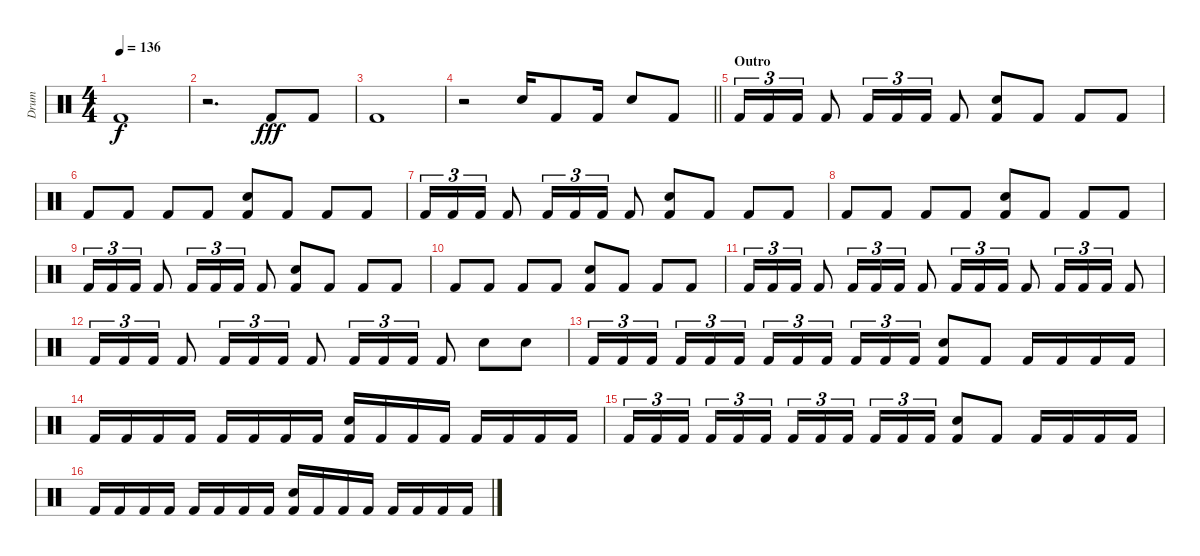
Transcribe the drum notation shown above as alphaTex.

\track ("Drum" "Drum") {instrument percussion}
\staff {score}
\articulation defaults
\ts (4 4)
\tempo 136
\clef neutral
\ks c "Kick (hit) 2".1{dy f}
|
r.2{d} "Kick (hit) 2".8{dy fff} "Kick (hit) 2".8 |
"Kick (hit) 2".1 |
\barLineRight lightlight
r.2 "Electric Snare (hit)".16 "Kick (hit) 2".8 "Kick (hit) 2".16 "Electric Snare (hit)".8 "Kick (hit) 2".8 |
\section ("" "Outro")
"Kick (hit) 2".16{tu (3 2)} "Kick (hit) 2".16{tu (3 2)} "Kick (hit) 2".16{tu (3 2)} "Kick (hit) 2".8 "Kick (hit) 2".16{tu (3 2)} "Kick (hit) 2".16{tu (3 2)} "Kick (hit) 2".16{tu (3 2)} "Kick (hit) 2".8 ("Electric Snare (hit)" "Kick (hit) 2").8 "Kick (hit) 2".8 "Kick (hit) 2".8 "Kick (hit) 2".8 |
"Kick (hit) 2".8 "Kick (hit) 2".8 "Kick (hit) 2".8 "Kick (hit) 2".8 ("Electric Snare (hit)" "Kick (hit) 2").8 "Kick (hit) 2".8 "Kick (hit) 2".8 "Kick (hit) 2".8 |
"Kick (hit) 2".16{tu (3 2)} "Kick (hit) 2".16{tu (3 2)} "Kick (hit) 2".16{tu (3 2)} "Kick (hit) 2".8 "Kick (hit) 2".16{tu (3 2)} "Kick (hit) 2".16{tu (3 2)} "Kick (hit) 2".16{tu (3 2)} "Kick (hit) 2".8 ("Electric Snare (hit)" "Kick (hit) 2").8 "Kick (hit) 2".8 "Kick (hit) 2".8 "Kick (hit) 2".8 |
"Kick (hit) 2".8 "Kick (hit) 2".8 "Kick (hit) 2".8 "Kick (hit) 2".8 ("Electric Snare (hit)" "Kick (hit) 2").8 "Kick (hit) 2".8 "Kick (hit) 2".8 "Kick (hit) 2".8 |
"Kick (hit) 2".16{tu (3 2)} "Kick (hit) 2".16{tu (3 2)} "Kick (hit) 2".16{tu (3 2)} "Kick (hit) 2".8 "Kick (hit) 2".16{tu (3 2)} "Kick (hit) 2".16{tu (3 2)} "Kick (hit) 2".16{tu (3 2)} "Kick (hit) 2".8 ("Electric Snare (hit)" "Kick (hit) 2").8 "Kick (hit) 2".8 "Kick (hit) 2".8 "Kick (hit) 2".8 |
"Kick (hit) 2".8 "Kick (hit) 2".8 "Kick (hit) 2".8 "Kick (hit) 2".8 ("Electric Snare (hit)" "Kick (hit) 2").8 "Kick (hit) 2".8 "Kick (hit) 2".8 "Kick (hit) 2".8 |
"Kick (hit) 2".16{tu (3 2) volume 10} "Kick (hit) 2".16{tu (3 2)} "Kick (hit) 2".16{tu (3 2)} "Kick (hit) 2".8 "Kick (hit) 2".16{tu (3 2)} "Kick (hit) 2".16{tu (3 2)} "Kick (hit) 2".16{tu (3 2)} "Kick (hit) 2".8 "Kick (hit) 2".16{tu (3 2)} "Kick (hit) 2".16{tu (3 2)} "Kick (hit) 2".16{tu (3 2)} "Kick (hit) 2".8 "Kick (hit) 2".16{tu (3 2)} "Kick (hit) 2".16{tu (3 2)} "Kick (hit) 2".16{tu (3 2)} "Kick (hit) 2".8 |
"Kick (hit) 2".16{tu (3 2)} "Kick (hit) 2".16{tu (3 2)} "Kick (hit) 2".16{tu (3 2)} "Kick (hit) 2".8 "Kick (hit) 2".16{tu (3 2)} "Kick (hit) 2".16{tu (3 2)} "Kick (hit) 2".16{tu (3 2)} "Kick (hit) 2".8 "Kick (hit) 2".16{tu (3 2)} "Kick (hit) 2".16{tu (3 2)} "Kick (hit) 2".16{tu (3 2)} "Kick (hit) 2".8 "Electric Snare (hit)".8 "Electric Snare (hit)".8 |
"Kick (hit) 2".16{tu (3 2)} "Kick (hit) 2".16{tu (3 2)} "Kick (hit) 2".16{tu (3 2) beam splitsecondary} "Kick (hit) 2".16{tu (3 2)} "Kick (hit) 2".16{tu (3 2)} "Kick (hit) 2".16{tu (3 2)} "Kick (hit) 2".16{tu (3 2)} "Kick (hit) 2".16{tu (3 2)} "Kick (hit) 2".16{tu (3 2) beam splitsecondary} "Kick (hit) 2".16{tu (3 2)} "Kick (hit) 2".16{tu (3 2)} "Kick (hit) 2".16{tu (3 2)} ("Electric Snare (hit)" "Kick (hit) 2").8 "Kick (hit) 2".8 "Kick (hit) 2".16 "Kick (hit) 2".16 "Kick (hit) 2".16 "Kick (hit) 2".16 |
"Kick (hit) 2".16 "Kick (hit) 2".16 "Kick (hit) 2".16 "Kick (hit) 2".16 "Kick (hit) 2".16 "Kick (hit) 2".16 "Kick (hit) 2".16 "Kick (hit) 2".16 ("Electric Snare (hit)" "Kick (hit) 2").16 "Kick (hit) 2".16 "Kick (hit) 2".16 "Kick (hit) 2".16 "Kick (hit) 2".16 "Kick (hit) 2".16 "Kick (hit) 2".16 "Kick (hit) 2".16 |
"Kick (hit) 2".16{tu (3 2) volume 8} "Kick (hit) 2".16{tu (3 2)} "Kick (hit) 2".16{tu (3 2) beam splitsecondary} "Kick (hit) 2".16{tu (3 2)} "Kick (hit) 2".16{tu (3 2)} "Kick (hit) 2".16{tu (3 2)} "Kick (hit) 2".16{tu (3 2)} "Kick (hit) 2".16{tu (3 2)} "Kick (hit) 2".16{tu (3 2) beam splitsecondary} "Kick (hit) 2".16{tu (3 2)} "Kick (hit) 2".16{tu (3 2)} "Kick (hit) 2".16{tu (3 2)} ("Electric Snare (hit)" "Kick (hit) 2").8 "Kick (hit) 2".8 "Kick (hit) 2".16 "Kick (hit) 2".16 "Kick (hit) 2".16 "Kick (hit) 2".16 |
"Kick (hit) 2".16 "Kick (hit) 2".16 "Kick (hit) 2".16 "Kick (hit) 2".16 "Kick (hit) 2".16 "Kick (hit) 2".16 "Kick (hit) 2".16 "Kick (hit) 2".16 ("Electric Snare (hit)" "Kick (hit) 2").16 "Kick (hit) 2".16 "Kick (hit) 2".16 "Kick (hit) 2".16 "Kick (hit) 2".16 "Kick (hit) 2".16 "Kick (hit) 2".16 "Kick (hit) 2".16
